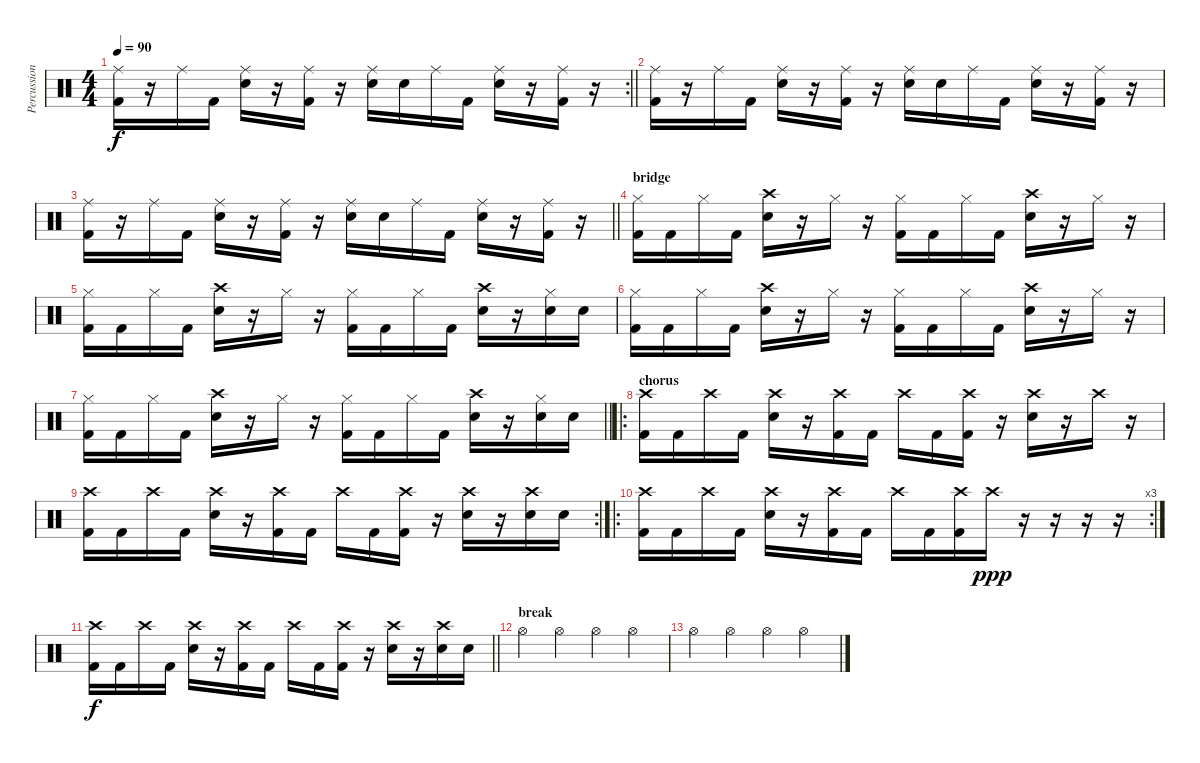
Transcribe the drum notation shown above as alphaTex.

\track ("Percussion" "Percussion") {instrument percussion}
\staff {score}
\articulation defaults
\rc 2
\ts (4 4)
\tempo 90
\clef neutral
\barLineRight lightlight
\ks c
("Ride (middle)" "Kick (hit) 2").16{dy f} r.16 "Ride (middle)".16 "Kick (hit) 2".16 ("Ride (middle)" "Electric Snare (hit)").16 r.16 ("Ride (middle)" "Kick (hit) 2").16 r.16 ("Ride (middle)" "Electric Snare (hit)").16 "Electric Snare (hit)".16 "Ride (middle)".16 "Kick (hit) 2".16 ("Ride (middle)" "Electric Snare (hit)").16 r.16 ("Ride (middle)" "Kick (hit) 2").16 r.16 |
("Ride (middle)" "Kick (hit) 2").16 r.16 "Ride (middle)".16 "Kick (hit) 2".16 ("Ride (middle)" "Electric Snare (hit)").16 r.16 ("Ride (middle)" "Kick (hit) 2").16 r.16 ("Ride (middle)" "Electric Snare (hit)").16 "Electric Snare (hit)".16 "Ride (middle)".16 "Kick (hit) 2".16 ("Ride (middle)" "Electric Snare (hit)").16 r.16 ("Ride (middle)" "Kick (hit) 2").16 r.16 |
\barLineRight lightlight
("Ride (middle)" "Kick (hit) 2").16 r.16 "Ride (middle)".16 "Kick (hit) 2".16 ("Ride (middle)" "Electric Snare (hit)").16 r.16 ("Ride (middle)" "Kick (hit) 2").16 r.16 ("Ride (middle)" "Electric Snare (hit)").16 "Electric Snare (hit)".16 "Ride (middle)".16 "Kick (hit) 2".16 ("Ride (middle)" "Electric Snare (hit)").16 r.16 ("Ride (middle)" "Kick (hit) 2").16 r.16 |
\section ("" "bridge")
("Hi-Hat (closed)" "Kick (hit) 2").16 "Kick (hit) 2".16 "Hi-Hat (closed)".16 "Kick (hit) 2".16 ("Crash high (hit)" "Electric Snare (hit)").16 r.16 "Hi-Hat (closed)".16 r.16 ("Hi-Hat (closed)" "Kick (hit) 2").16 "Kick (hit) 2".16 "Hi-Hat (closed)".16 "Kick (hit) 2".16 ("Crash high (hit)" "Electric Snare (hit)").16 r.16 "Hi-Hat (closed)".16 r.16 |
("Hi-Hat (closed)" "Kick (hit) 2").16 "Kick (hit) 2".16 "Hi-Hat (closed)".16 "Kick (hit) 2".16 ("Crash high (hit)" "Electric Snare (hit)").16 r.16 "Hi-Hat (closed)".16 r.16 ("Hi-Hat (closed)" "Kick (hit) 2").16 "Kick (hit) 2".16 "Hi-Hat (closed)".16 "Kick (hit) 2".16 ("Crash high (hit)" "Electric Snare (hit)").16 r.16 ("Hi-Hat (closed)" "Electric Snare (hit)").16 "Electric Snare (hit)".16 |
("Hi-Hat (closed)" "Kick (hit) 2").16 "Kick (hit) 2".16 "Hi-Hat (closed)".16 "Kick (hit) 2".16 ("Crash high (hit)" "Electric Snare (hit)").16 r.16 "Hi-Hat (closed)".16 r.16 ("Hi-Hat (closed)" "Kick (hit) 2").16 "Kick (hit) 2".16 "Hi-Hat (closed)".16 "Kick (hit) 2".16 ("Crash high (hit)" "Electric Snare (hit)").16 r.16 "Hi-Hat (closed)".16 r.16 |
\barLineRight lightlight
("Hi-Hat (closed)" "Kick (hit) 2").16 "Kick (hit) 2".16 "Hi-Hat (closed)".16 "Kick (hit) 2".16 ("Crash high (hit)" "Electric Snare (hit)").16 r.16 "Hi-Hat (closed)".16 r.16 ("Hi-Hat (closed)" "Kick (hit) 2").16 "Kick (hit) 2".16 "Hi-Hat (closed)".16 "Kick (hit) 2".16 ("Crash high (hit)" "Electric Snare (hit)").16 r.16 ("Hi-Hat (closed)" "Electric Snare (hit)").16 "Electric Snare (hit)".16 |
\ro
\section ("" "chorus")
("Crash high (hit)" "Kick (hit) 2").16 "Kick (hit) 2".16 "Crash high (hit)".16 "Kick (hit) 2".16 ("Crash high (hit)" "Electric Snare (hit)").16 r.16 ("Crash high (hit)" "Kick (hit) 2").16 "Kick (hit) 2".16 "Crash high (hit)".16 "Kick (hit) 2".16 ("Crash high (hit)" "Kick (hit) 2").16 r.16 ("Crash high (hit)" "Electric Snare (hit)").16 r.16 "Crash high (hit)".16 r.16 |
\rc 2
("Crash high (hit)" "Kick (hit) 2").16 "Kick (hit) 2".16 "Crash high (hit)".16 "Kick (hit) 2".16 ("Crash high (hit)" "Electric Snare (hit)").16 r.16 ("Crash high (hit)" "Kick (hit) 2").16 "Kick (hit) 2".16 "Crash high (hit)".16 "Kick (hit) 2".16 ("Crash high (hit)" "Kick (hit) 2").16 r.16 ("Crash high (hit)" "Electric Snare (hit)").16 r.16 ("Crash high (hit)" "Electric Snare (hit)").16 "Electric Snare (hit)".16 |
\ro
\rc 3
("Crash high (hit)" "Kick (hit) 2").16 "Kick (hit) 2".16 "Crash high (hit)".16 "Kick (hit) 2".16 ("Crash high (hit)" "Electric Snare (hit)").16 r.16 ("Crash high (hit)" "Kick (hit) 2").16 "Kick (hit) 2".16 "Crash high (hit)".16 "Kick (hit) 2".16 ("Crash high (hit)" "Kick (hit) 2").16 "Crash high (hit)".16{dy ppp} r.16 r.16 r.16 r.16 |
\barLineRight lightlight
("Crash high (hit)" "Kick (hit) 2").16{dy f} "Kick (hit) 2".16 "Crash high (hit)".16 "Kick (hit) 2".16 ("Crash high (hit)" "Electric Snare (hit)").16 r.16 ("Crash high (hit)" "Kick (hit) 2").16 "Kick (hit) 2".16 "Crash high (hit)".16 "Kick (hit) 2".16 ("Crash high (hit)" "Kick (hit) 2").16 r.16 ("Crash high (hit)" "Electric Snare (hit)").16 r.16 ("Crash high (hit)" "Electric Snare (hit)").16 "Electric Snare (hit)".16 |
\section ("" "break")
"Hi-Hat (open)".4 "Hi-Hat (open)".4 "Hi-Hat (open)".4 "Hi-Hat (open)".4 |
"Hi-Hat (open)".4 "Hi-Hat (open)".4 "Hi-Hat (open)".4 "Hi-Hat (open)".4
